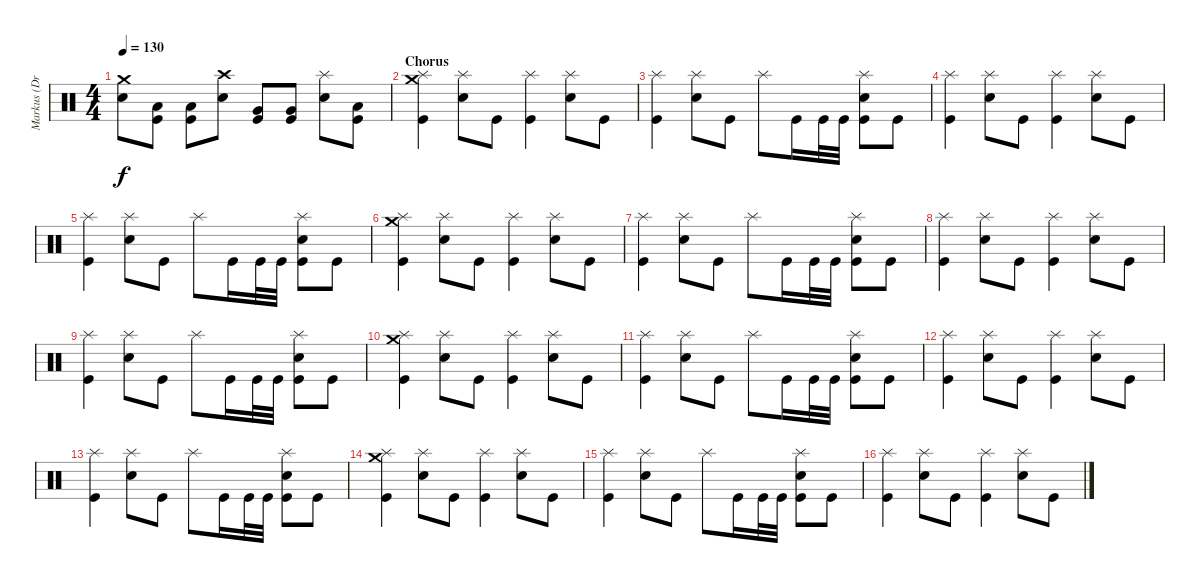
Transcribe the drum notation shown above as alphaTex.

\track ("Markus (Drums)" "Markus (Dr") {instrument percussion}
\staff {score}
\articulation defaults
\ts (4 4)
\tempo 130
\clef neutral
\ks c
("Crash medium (hit)" "Electric Snare (hit)").8{dy f} ("Low Tom (hit)" "Kick (hit)").8 ("Low Tom (hit)" "Kick (hit)").8 ("Crash high (hit)" "Electric Snare (hit)").8 ("Very Low Tom (hit)" "Kick (hit)").8 ("Very Low Tom (hit)" "Kick (hit)").8 ("Splash (hit)" "Electric Snare (hit)").8 ("Low Floor Tom (hit)" "Kick (hit)").8 |
\section ("" "Chorus")
("Crash medium (hit)" "Splash (hit)" "Kick (hit)").4 ("Splash (hit)" "Electric Snare (hit)").8 "Kick (hit)".8 ("Splash (hit)" "Kick (hit)").4 ("Splash (hit)" "Electric Snare (hit)").8 "Kick (hit)".8 |
("Splash (hit)" "Kick (hit)").4 ("Splash (hit)" "Electric Snare (hit)").8 "Kick (hit)".8 "Splash (hit)".8 "Kick (hit)".16 "Kick (hit)".32 "Kick (hit)".32 ("Splash (hit)" "Electric Snare (hit)" "Kick (hit)").8 "Kick (hit)".8 |
("Splash (hit)" "Kick (hit)").4 ("Splash (hit)" "Electric Snare (hit)").8 "Kick (hit)".8 ("Splash (hit)" "Kick (hit)").4 ("Splash (hit)" "Electric Snare (hit)").8 "Kick (hit)".8 |
("Splash (hit)" "Kick (hit)").4 ("Splash (hit)" "Electric Snare (hit)").8 "Kick (hit)".8 "Splash (hit)".8 "Kick (hit)".16 "Kick (hit)".32 "Kick (hit)".32 ("Splash (hit)" "Electric Snare (hit)" "Kick (hit)").8 "Kick (hit)".8 |
\section ("" "")
("Crash medium (hit)" "Splash (hit)" "Kick (hit)").4 ("Splash (hit)" "Electric Snare (hit)").8 "Kick (hit)".8 ("Splash (hit)" "Kick (hit)").4 ("Splash (hit)" "Electric Snare (hit)").8 "Kick (hit)".8 |
("Splash (hit)" "Kick (hit)").4 ("Splash (hit)" "Electric Snare (hit)").8 "Kick (hit)".8 "Splash (hit)".8 "Kick (hit)".16 "Kick (hit)".32 "Kick (hit)".32 ("Splash (hit)" "Electric Snare (hit)" "Kick (hit)").8 "Kick (hit)".8 |
("Splash (hit)" "Kick (hit)").4 ("Splash (hit)" "Electric Snare (hit)").8 "Kick (hit)".8 ("Splash (hit)" "Kick (hit)").4 ("Splash (hit)" "Electric Snare (hit)").8 "Kick (hit)".8 |
("Splash (hit)" "Kick (hit)").4 ("Splash (hit)" "Electric Snare (hit)").8 "Kick (hit)".8 "Splash (hit)".8 "Kick (hit)".16 "Kick (hit)".32 "Kick (hit)".32 ("Splash (hit)" "Electric Snare (hit)" "Kick (hit)").8 "Kick (hit)".8 |
\section ("" "")
("Crash medium (hit)" "Splash (hit)" "Kick (hit)").4 ("Splash (hit)" "Electric Snare (hit)").8 "Kick (hit)".8 ("Splash (hit)" "Kick (hit)").4 ("Splash (hit)" "Electric Snare (hit)").8 "Kick (hit)".8 |
("Splash (hit)" "Kick (hit)").4 ("Splash (hit)" "Electric Snare (hit)").8 "Kick (hit)".8 "Splash (hit)".8 "Kick (hit)".16 "Kick (hit)".32 "Kick (hit)".32 ("Splash (hit)" "Electric Snare (hit)" "Kick (hit)").8 "Kick (hit)".8 |
("Splash (hit)" "Kick (hit)").4 ("Splash (hit)" "Electric Snare (hit)").8 "Kick (hit)".8 ("Splash (hit)" "Kick (hit)").4 ("Splash (hit)" "Electric Snare (hit)").8 "Kick (hit)".8 |
("Splash (hit)" "Kick (hit)").4 ("Splash (hit)" "Electric Snare (hit)").8 "Kick (hit)".8 "Splash (hit)".8 "Kick (hit)".16 "Kick (hit)".32 "Kick (hit)".32 ("Splash (hit)" "Electric Snare (hit)" "Kick (hit)").8 "Kick (hit)".8 |
\section ("" "")
("Crash medium (hit)" "Splash (hit)" "Kick (hit)").4 ("Splash (hit)" "Electric Snare (hit)").8 "Kick (hit)".8 ("Splash (hit)" "Kick (hit)").4 ("Splash (hit)" "Electric Snare (hit)").8 "Kick (hit)".8 |
("Splash (hit)" "Kick (hit)").4 ("Splash (hit)" "Electric Snare (hit)").8 "Kick (hit)".8 "Splash (hit)".8 "Kick (hit)".16 "Kick (hit)".32 "Kick (hit)".32 ("Splash (hit)" "Electric Snare (hit)" "Kick (hit)").8 "Kick (hit)".8 |
("Splash (hit)" "Kick (hit)").4 ("Splash (hit)" "Electric Snare (hit)").8 "Kick (hit)".8 ("Splash (hit)" "Kick (hit)").4 ("Splash (hit)" "Electric Snare (hit)").8 "Kick (hit)".8
